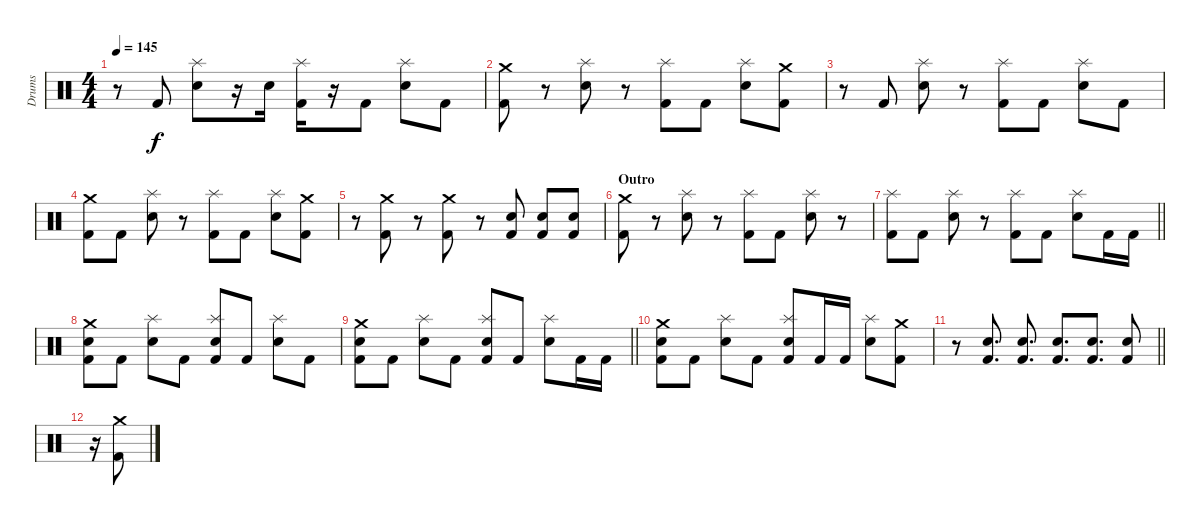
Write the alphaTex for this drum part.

\track ("Drums" "Drums") {instrument percussion}
\staff {score}
\articulation defaults
\ts (4 4)
\tempo 145
\clef neutral
\ks c
r.8{dy f} "Kick (hit) 2".8 ("Splash (hit)" "Snare (hit) 2").8 r.16 "Snare (hit) 2".16 ("Splash (hit)" "Kick (hit) 2").16 r.16 "Kick (hit) 2".8 ("Splash (hit)" "Snare (hit) 2").8 "Kick (hit) 2".8 |
("Crash medium (hit)" "Kick (hit) 2").8 r.8 ("Splash (hit)" "Snare (hit) 2").8 r.8 ("Splash (hit)" "Kick (hit) 2").8 "Kick (hit) 2".8 ("Splash (hit)" "Snare (hit) 2").8 ("Kick (hit) 2" "Crash medium (hit)").8 |
r.8 "Kick (hit) 2".8 ("Splash (hit)" "Snare (hit) 2").8 r.8 ("Splash (hit)" "Kick (hit) 2").8 "Kick (hit) 2".8 ("Splash (hit)" "Snare (hit) 2").8 "Kick (hit) 2".8 |
("Crash medium (hit)" "Kick (hit) 2").8 "Kick (hit) 2".8 ("Snare (hit) 2" "Splash (hit)").8 r.8 ("Splash (hit)" "Kick (hit) 2").8 "Kick (hit) 2".8 ("Splash (hit)" "Snare (hit) 2").8 ("Kick (hit) 2" "Crash medium (hit)").8 |
r.8 ("Crash medium (hit)" "Kick (hit) 2").8 r.8 ("Kick (hit) 2" "Crash medium (hit)").8 r.8 ("Snare (hit) 2" "Kick (hit) 2").8 ("Snare (hit) 2" "Kick (hit) 2").8 ("Snare (hit) 2" "Kick (hit) 2").8 |
\section ("" "Outro")
("Crash medium (hit)" "Kick (hit) 2").8{volume 13} r.8 ("Splash (hit)" "Snare (hit) 2").8 r.8 ("Splash (hit)" "Kick (hit) 2").8 "Kick (hit) 2".8 ("Splash (hit)" "Snare (hit) 2").8 r.8 |
\barLineRight lightlight
("Splash (hit)" "Kick (hit) 2").8 "Kick (hit) 2".8 ("Splash (hit)" "Snare (hit) 2").8 r.8 ("Splash (hit)" "Kick (hit) 2").8 "Kick (hit) 2".8 ("Splash (hit)" "Snare (hit) 2").8 "Kick (hit) 2".16 "Kick (hit) 2".16 |
("Crash medium (hit)" "Snare (hit) 2" "Kick (hit) 2").8 "Kick (hit) 2".8 ("Splash (hit)" "Snare (hit) 2").8 "Kick (hit) 2".8 ("Splash (hit)" "Snare (hit) 2" "Kick (hit) 2").8 "Kick (hit) 2".8 ("Splash (hit)" "Snare (hit) 2").8 "Kick (hit) 2".8 |
\barLineRight lightlight
("Crash medium (hit)" "Snare (hit) 2" "Kick (hit) 2").8 "Kick (hit) 2".8 ("Splash (hit)" "Snare (hit) 2").8 "Kick (hit) 2".8 ("Splash (hit)" "Snare (hit) 2" "Kick (hit) 2").8 "Kick (hit) 2".8 ("Splash (hit)" "Snare (hit) 2").8 "Kick (hit) 2".16 "Kick (hit) 2".16 |
("Crash medium (hit)" "Snare (hit) 2" "Kick (hit) 2").8 "Kick (hit) 2".8 ("Splash (hit)" "Snare (hit) 2").8 "Kick (hit) 2".8 ("Splash (hit)" "Snare (hit) 2" "Kick (hit) 2").8 "Kick (hit) 2".16 "Kick (hit) 2".16 ("Splash (hit)" "Snare (hit) 2").8 ("Crash medium (hit)" "Kick (hit) 2").8 |
\barLineRight lightlight
r.8 ("Kick (hit) 2" "Snare (hit) 2").8{d} ("Kick (hit) 2" "Snare (hit) 2").8{d} ("Kick (hit) 2" "Snare (hit) 2").8{d} ("Kick (hit) 2" "Snare (hit) 2").8{d} ("Kick (hit) 2" "Snare (hit) 2").8 |
r.16 ("Kick (hit) 2" "Crash medium (hit)").8
